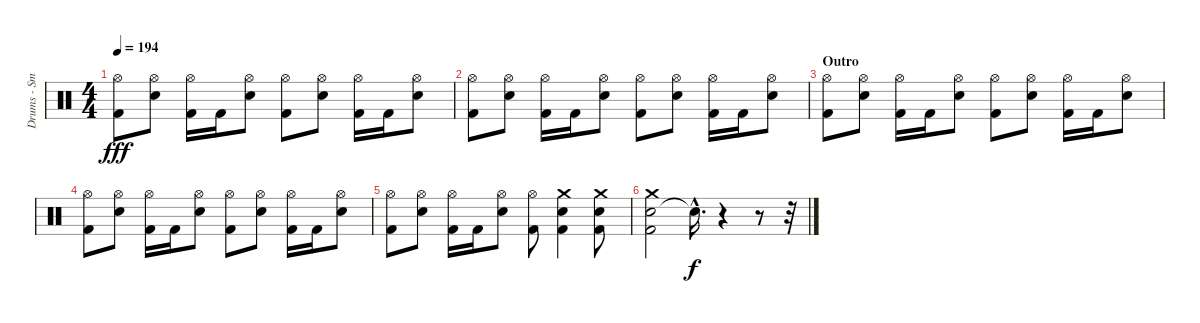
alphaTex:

\track ("Drums - Smelly" "Drums - Sm") {instrument percussion}
\staff {score}
\articulation defaults
\ts (4 4)
\tempo 194
\clef neutral
\ks c
("Kick (hit) 2" "Hi-Hat (open)").8{dy fff} ("Electric Snare (hit)" "Hi-Hat (open)").8 ("Kick (hit) 2" "Hi-Hat (open)").16 "Kick (hit) 2".16 ("Electric Snare (hit)" "Hi-Hat (open)").8 ("Kick (hit) 2" "Hi-Hat (open)").8 ("Electric Snare (hit)" "Hi-Hat (open)").8 ("Kick (hit) 2" "Hi-Hat (open)").16 "Kick (hit) 2".16 ("Electric Snare (hit)" "Hi-Hat (open)").8 |
("Kick (hit) 2" "Hi-Hat (open)").8 ("Electric Snare (hit)" "Hi-Hat (open)").8 ("Kick (hit) 2" "Hi-Hat (open)").16 "Kick (hit) 2".16 ("Electric Snare (hit)" "Hi-Hat (open)").8 ("Kick (hit) 2" "Hi-Hat (open)").8 ("Electric Snare (hit)" "Hi-Hat (open)").8 ("Kick (hit) 2" "Hi-Hat (open)").16 "Kick (hit) 2".16 ("Electric Snare (hit)" "Hi-Hat (open)").8 |
\section ("" "Outro")
("Kick (hit) 2" "Hi-Hat (open)").8 ("Electric Snare (hit)" "Hi-Hat (open)").8 ("Kick (hit) 2" "Hi-Hat (open)").16 "Kick (hit) 2".16 ("Electric Snare (hit)" "Hi-Hat (open)").8 ("Kick (hit) 2" "Hi-Hat (open)").8 ("Electric Snare (hit)" "Hi-Hat (open)").8 ("Kick (hit) 2" "Hi-Hat (open)").16 "Kick (hit) 2".16 ("Electric Snare (hit)" "Hi-Hat (open)").8 |
("Kick (hit) 2" "Hi-Hat (open)").8 ("Electric Snare (hit)" "Hi-Hat (open)").8 ("Kick (hit) 2" "Hi-Hat (open)").16 "Kick (hit) 2".16 ("Electric Snare (hit)" "Hi-Hat (open)").8 ("Kick (hit) 2" "Hi-Hat (open)").8 ("Electric Snare (hit)" "Hi-Hat (open)").8 ("Kick (hit) 2" "Hi-Hat (open)").16 "Kick (hit) 2".16 ("Electric Snare (hit)" "Hi-Hat (open)").8 |
("Kick (hit) 2" "Hi-Hat (open)").8 ("Electric Snare (hit)" "Hi-Hat (open)").8 ("Kick (hit) 2" "Hi-Hat (open)").16 "Kick (hit) 2".16 ("Electric Snare (hit)" "Hi-Hat (open)").8 ("Kick (hit) 2" "Hi-Hat (open)").8 ("Electric Snare (hit)" "Kick (hit) 2" "Crash medium (hit)").4 ("Electric Snare (hit)" "Kick (hit) 2" "Crash medium (hit)").8 |
("Electric Snare (hit)" "Kick (hit) 2" "Crash medium (hit)").2 "Snare (hit)"{hac t}.16{d dy f} r.4 r.8 r.32
